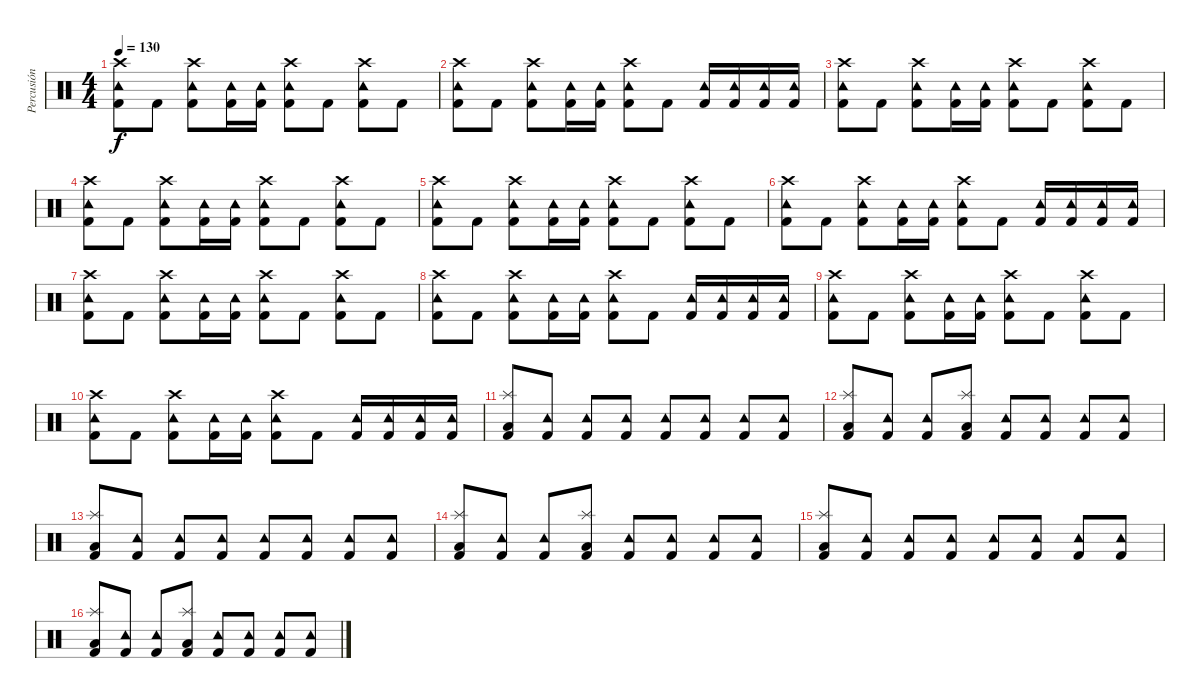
\track ("Percusión" "Percusión") {instrument percussion}
\staff {score}
\articulation defaults
\ts (4 4)
\tempo 130
\clef neutral
\ks c
("Tambourine (hit)" "Kick (hit) 2" "Crash high (hit)").8{dy f} "Kick (hit) 2".8 ("Tambourine (hit)" "Kick (hit) 2" "Crash high (hit)").8 ("Tambourine (hit)" "Kick (hit) 2").16 ("Tambourine (hit)" "Kick (hit) 2").16 ("Tambourine (hit)" "Kick (hit) 2" "Crash high (hit)").8 "Kick (hit) 2".8 ("Tambourine (hit)" "Kick (hit) 2" "Crash high (hit)").8 "Kick (hit) 2".8 |
("Tambourine (hit)" "Kick (hit) 2" "Crash high (hit)").8 "Kick (hit) 2".8 ("Tambourine (hit)" "Kick (hit) 2" "Crash high (hit)").8 ("Tambourine (hit)" "Kick (hit) 2").16 ("Tambourine (hit)" "Kick (hit) 2").16 ("Tambourine (hit)" "Kick (hit) 2" "Crash high (hit)").8 "Kick (hit) 2".8 ("Tambourine (hit)" "Kick (hit) 2").16 ("Tambourine (hit)" "Kick (hit) 2").16 ("Tambourine (hit)" "Kick (hit) 2").16 ("Tambourine (hit)" "Kick (hit) 2").16 |
("Tambourine (hit)" "Kick (hit) 2" "Crash high (hit)").8 "Kick (hit) 2".8 ("Tambourine (hit)" "Kick (hit) 2" "Crash high (hit)").8 ("Tambourine (hit)" "Kick (hit) 2").16 ("Tambourine (hit)" "Kick (hit) 2").16 ("Tambourine (hit)" "Kick (hit) 2" "Crash high (hit)").8 "Kick (hit) 2".8 ("Tambourine (hit)" "Kick (hit) 2" "Crash high (hit)").8 "Kick (hit) 2".8 |
("Tambourine (hit)" "Kick (hit) 2" "Crash high (hit)").8 "Kick (hit) 2".8 ("Tambourine (hit)" "Kick (hit) 2" "Crash high (hit)").8 ("Tambourine (hit)" "Kick (hit) 2").16 ("Tambourine (hit)" "Kick (hit) 2").16 ("Tambourine (hit)" "Kick (hit) 2" "Crash high (hit)").8 "Kick (hit) 2".8 ("Tambourine (hit)" "Kick (hit) 2" "Crash high (hit)").8 "Kick (hit) 2".8 |
("Tambourine (hit)" "Kick (hit) 2" "Crash high (hit)").8 "Kick (hit) 2".8 ("Tambourine (hit)" "Kick (hit) 2" "Crash high (hit)").8 ("Tambourine (hit)" "Kick (hit) 2").16 ("Tambourine (hit)" "Kick (hit) 2").16 ("Tambourine (hit)" "Kick (hit) 2" "Crash high (hit)").8 "Kick (hit) 2".8 ("Tambourine (hit)" "Kick (hit) 2" "Crash high (hit)").8 "Kick (hit) 2".8 |
("Tambourine (hit)" "Kick (hit) 2" "Crash high (hit)").8 "Kick (hit) 2".8 ("Tambourine (hit)" "Kick (hit) 2" "Crash high (hit)").8 ("Tambourine (hit)" "Kick (hit) 2").16 ("Tambourine (hit)" "Kick (hit) 2").16 ("Tambourine (hit)" "Kick (hit) 2" "Crash high (hit)").8 "Kick (hit) 2".8 ("Tambourine (hit)" "Kick (hit) 2").16 ("Tambourine (hit)" "Kick (hit) 2").16 ("Tambourine (hit)" "Kick (hit) 2").16 ("Tambourine (hit)" "Kick (hit) 2").16 |
("Tambourine (hit)" "Kick (hit) 2" "Crash high (hit)").8 "Kick (hit) 2".8 ("Tambourine (hit)" "Kick (hit) 2" "Crash high (hit)").8 ("Tambourine (hit)" "Kick (hit) 2").16 ("Tambourine (hit)" "Kick (hit) 2").16 ("Tambourine (hit)" "Kick (hit) 2" "Crash high (hit)").8 "Kick (hit) 2".8 ("Tambourine (hit)" "Kick (hit) 2" "Crash high (hit)").8 "Kick (hit) 2".8 |
("Tambourine (hit)" "Kick (hit) 2" "Crash high (hit)").8 "Kick (hit) 2".8 ("Tambourine (hit)" "Kick (hit) 2" "Crash high (hit)").8 ("Tambourine (hit)" "Kick (hit) 2").16 ("Tambourine (hit)" "Kick (hit) 2").16 ("Tambourine (hit)" "Kick (hit) 2" "Crash high (hit)").8 "Kick (hit) 2".8 ("Tambourine (hit)" "Kick (hit) 2").16 ("Tambourine (hit)" "Kick (hit) 2").16 ("Tambourine (hit)" "Kick (hit) 2").16 ("Tambourine (hit)" "Kick (hit) 2").16 |
("Tambourine (hit)" "Kick (hit) 2" "Crash high (hit)").8 "Kick (hit) 2".8 ("Tambourine (hit)" "Kick (hit) 2" "Crash high (hit)").8 ("Tambourine (hit)" "Kick (hit) 2").16 ("Tambourine (hit)" "Kick (hit) 2").16 ("Tambourine (hit)" "Kick (hit) 2" "Crash high (hit)").8 "Kick (hit) 2".8 ("Tambourine (hit)" "Kick (hit) 2" "Crash high (hit)").8 "Kick (hit) 2".8 |
("Tambourine (hit)" "Kick (hit) 2" "Crash high (hit)").8 "Kick (hit) 2".8 ("Tambourine (hit)" "Kick (hit) 2" "Crash high (hit)").8 ("Tambourine (hit)" "Kick (hit) 2").16 ("Tambourine (hit)" "Kick (hit) 2").16 ("Tambourine (hit)" "Kick (hit) 2" "Crash high (hit)").8 "Kick (hit) 2".8 ("Tambourine (hit)" "Kick (hit) 2").16 ("Tambourine (hit)" "Kick (hit) 2").16 ("Tambourine (hit)" "Kick (hit) 2").16 ("Tambourine (hit)" "Kick (hit) 2").16 |
("Splash (hit)" "Kick (hit) 2" "Low Tom (hit)").8 ("Tambourine (hit)" "Kick (hit) 2").8 ("Tambourine (hit)" "Kick (hit) 2").8 ("Tambourine (hit)" "Kick (hit) 2").8 ("Tambourine (hit)" "Kick (hit) 2").8 ("Tambourine (hit)" "Kick (hit) 2").8 ("Tambourine (hit)" "Kick (hit) 2").8 ("Tambourine (hit)" "Kick (hit) 2").8 |
("Splash (hit)" "Kick (hit) 2" "Low Tom (hit)").8 ("Tambourine (hit)" "Kick (hit) 2").8 ("Tambourine (hit)" "Kick (hit) 2").8 ("Splash (hit)" "Kick (hit) 2" "Low Tom (hit)").8 ("Tambourine (hit)" "Kick (hit) 2").8 ("Tambourine (hit)" "Kick (hit) 2").8 ("Tambourine (hit)" "Kick (hit) 2").8 ("Tambourine (hit)" "Kick (hit) 2").8 |
("Splash (hit)" "Kick (hit) 2" "Low Tom (hit)").8 ("Tambourine (hit)" "Kick (hit) 2").8 ("Tambourine (hit)" "Kick (hit) 2").8 ("Tambourine (hit)" "Kick (hit) 2").8 ("Tambourine (hit)" "Kick (hit) 2").8 ("Tambourine (hit)" "Kick (hit) 2").8 ("Tambourine (hit)" "Kick (hit) 2").8 ("Tambourine (hit)" "Kick (hit) 2").8 |
("Splash (hit)" "Kick (hit) 2" "Low Tom (hit)").8 ("Tambourine (hit)" "Kick (hit) 2").8 ("Tambourine (hit)" "Kick (hit) 2").8 ("Splash (hit)" "Kick (hit) 2" "Low Tom (hit)").8 ("Tambourine (hit)" "Kick (hit) 2").8 ("Tambourine (hit)" "Kick (hit) 2").8 ("Tambourine (hit)" "Kick (hit) 2").8 ("Tambourine (hit)" "Kick (hit) 2").8 |
("Splash (hit)" "Kick (hit) 2" "Low Tom (hit)").8 ("Tambourine (hit)" "Kick (hit) 2").8 ("Tambourine (hit)" "Kick (hit) 2").8 ("Tambourine (hit)" "Kick (hit) 2").8 ("Tambourine (hit)" "Kick (hit) 2").8 ("Tambourine (hit)" "Kick (hit) 2").8 ("Tambourine (hit)" "Kick (hit) 2").8 ("Tambourine (hit)" "Kick (hit) 2").8 |
("Splash (hit)" "Kick (hit) 2" "Low Tom (hit)").8 ("Tambourine (hit)" "Kick (hit) 2").8 ("Tambourine (hit)" "Kick (hit) 2").8 ("Splash (hit)" "Kick (hit) 2" "Low Tom (hit)").8 ("Tambourine (hit)" "Kick (hit) 2").8 ("Tambourine (hit)" "Kick (hit) 2").8 ("Tambourine (hit)" "Kick (hit) 2").8 ("Tambourine (hit)" "Kick (hit) 2").8
